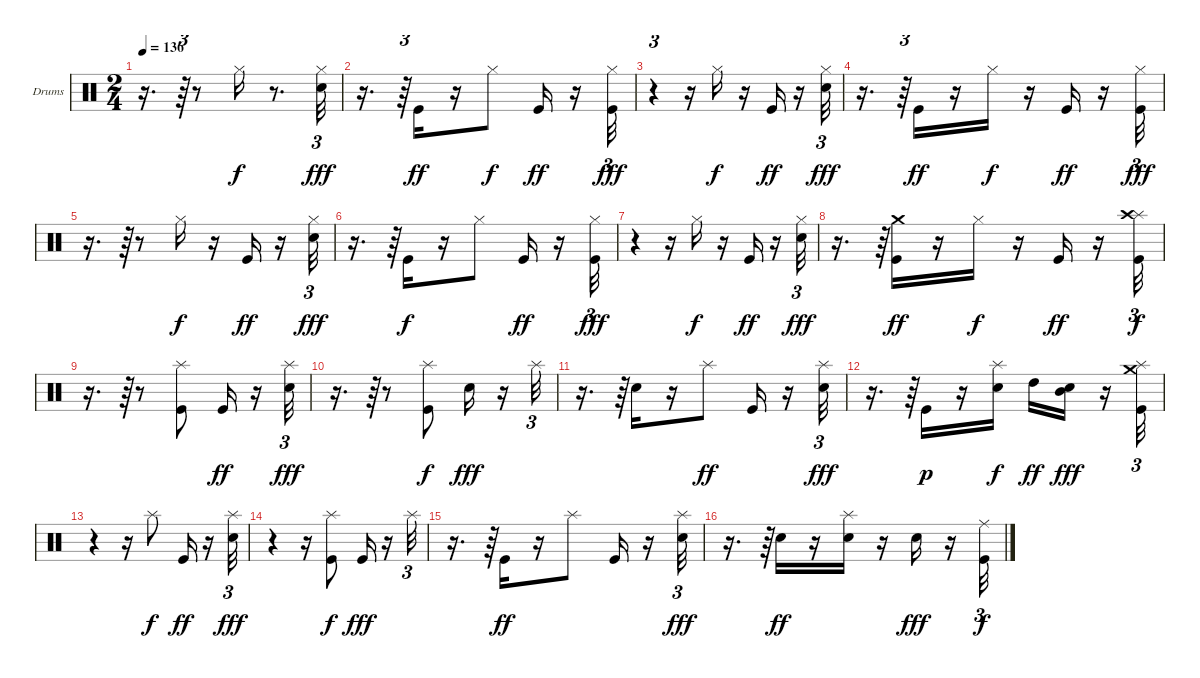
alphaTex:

\bracketExtendMode groupsimilarinstruments
\firstSystemTrackNameOrientation horizontal
\otherSystemsTrackNameOrientation horizontal
\track ("Drumkit" "Drums") {solo instrument percussion}
\staff {score}
\articulation defaults
\ts (2 4)
\tempo 136
\clef neutral
\ks c
r.16{d dy fff} r.64{tu (3 2)} r.8 "Hi-Hat (closed)".16{dy f} r.8{d} ("Hi-Hat (closed)" "Snare (hit) 2").32{tu (3 2) dy fff} |
r.16{d} r.64{tu (3 2)} "Kick (hit)".16{dy ff} r.16 "Hi-Hat (closed)".8{dy f} "Kick (hit)".16{dy ff} r.16 ("Hi-Hat (closed)" "Kick (hit)").32{tu (3 2) dy fff} |
r.4{tu (3 2)} r.16 "Hi-Hat (closed)".16{dy f} r.16 "Kick (hit)".16{dy ff} r.16 ("Hi-Hat (closed)" "Snare (hit) 2").32{tu (3 2) dy fff} |
r.16{d} r.64{tu (3 2)} "Kick (hit)".16{dy ff} r.16 "Hi-Hat (closed)".16{dy f} r.16 "Kick (hit)".16{dy ff} r.16 ("Hi-Hat (closed)" "Kick (hit)").32{tu (3 2) dy fff} |
r.16{d} r.64{tu (3 2)} r.8 "Hi-Hat (closed)".16{dy f} r.16 "Kick (hit)".16{dy ff} r.16 ("Hi-Hat (closed)" "Snare (hit) 2").32{tu (3 2) dy fff} |
r.16{d} r.64{tu (3 2)} "Kick (hit)".16{dy f} r.16 "Hi-Hat (closed)".8 "Kick (hit)".16{dy ff} r.16 ("Hi-Hat (closed)" "Kick (hit)").32{tu (3 2) dy fff} |
r.4{tu (3 2)} r.16 "Hi-Hat (closed)".16{dy f} r.16 "Kick (hit)".16{dy ff} r.16 ("Hi-Hat (closed)" "Snare (hit) 2").32{tu (3 2) dy fff} |
r.16{d} r.64{tu (3 2)} ("Kick (hit)" "Crash medium (hit)").16{dy ff} r.16 "Hi-Hat (closed)".16{dy f} r.16 "Kick (hit)".16{dy ff} r.16 ("Splash (hit)" "Kick (hit)" "Crash high (hit)").32{tu (3 2) dy f} |
r.16{d} r.64{tu (3 2)} r.8 ("Splash (hit)" "Kick (hit)").8 "Kick (hit)".16{dy ff} r.16 ("Splash (hit)" "Snare (hit) 2").32{tu (3 2) dy fff} |
r.16{d} r.64{tu (3 2)} r.8 ("Splash (hit)" "Kick (hit)").8{dy f} "Snare (hit) 2".16{dy fff} r.16 "Splash (hit)".32{tu (3 2)} |
r.16{d} r.64{tu (3 2)} "Snare (hit) 2".16 r.16 "Splash (hit)".8{dy ff} "Kick (hit)".16 r.16 ("Splash (hit)" "Snare (hit) 2").32{tu (3 2) dy fff} |
r.16{d} r.64{tu (3 2)} "Kick (hit)".16{dy p} r.16 ("Splash (hit)" "Snare (hit) 2").16{dy f} "High Tom (hit)".16{dy ff} ("Snare (hit) 2" "Mid Tom (hit)").16{dy fff} r.16 ("Splash (hit)" "Kick (hit)" "Crash medium (hit)").32{tu (3 2)} |
r.4{tu (3 2)} r.16 "Splash (hit)".8{dy f} "Kick (hit)".16{dy ff} r.16 ("Splash (hit)" "Snare (hit) 2").32{tu (3 2) dy fff} |
r.4{tu (3 2)} r.16 ("Splash (hit)" "Kick (hit)").8{dy f} "Kick (hit)".16{dy fff} r.16 "Splash (hit)".32{tu (3 2)} |
r.16{d} r.64{tu (3 2)} "Kick (hit)".16{dy ff} r.16 "Splash (hit)".8 "Kick (hit)".16 r.16 ("Splash (hit)" "Snare (hit) 2").32{tu (3 2) dy fff} |
r.16{d} r.64{tu (3 2)} "Snare (hit) 2".16{dy ff} r.16 ("Splash (hit)" "Snare (hit) 2").16 r.16 "Snare (hit) 2".16{dy fff} r.16 ("Ride (middle)" "Kick (hit)").32{tu (3 2) dy f}
